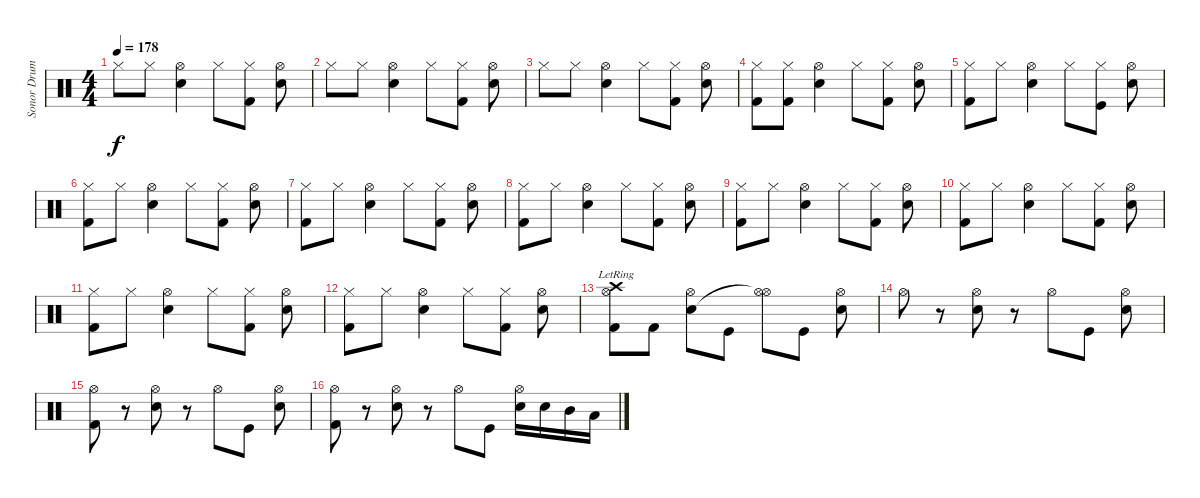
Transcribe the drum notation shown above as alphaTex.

\track ("Sonor Drum Kit " "Sonor Drum") {instrument percussion}
\staff {score}
\articulation defaults
\ts (4 4)
\tempo 178
\clef neutral
\ks c "Hi-Hat (closed)".8{dy f} "Hi-Hat (closed)".8
("Hi-Hat (open)" "Electric Snare (hit)").4 "Hi-Hat (closed)".8 ("Hi-Hat (closed)" "Kick (hit) 2").8 ("Hi-Hat (open)" "Electric Snare (hit)").8 |
"Hi-Hat (closed)".8 "Hi-Hat (closed)".8 ("Hi-Hat (open)" "Electric Snare (hit)").4 "Hi-Hat (closed)".8 ("Hi-Hat (closed)" "Kick (hit) 2").8 ("Hi-Hat (open)" "Electric Snare (hit)").8 |
"Hi-Hat (closed)".8 "Hi-Hat (closed)".8 ("Hi-Hat (open)" "Electric Snare (hit)").4 "Hi-Hat (closed)".8 ("Hi-Hat (closed)" "Kick (hit) 2").8 ("Hi-Hat (open)" "Electric Snare (hit)").8 |
("Hi-Hat (closed)" "Kick (hit) 2").8 ("Hi-Hat (closed)" "Kick (hit) 2").8 ("Hi-Hat (open)" "Electric Snare (hit)").4 "Hi-Hat (closed)".8 ("Hi-Hat (closed)" "Kick (hit) 2").8 ("Hi-Hat (open)" "Electric Snare (hit)").8 |
("Hi-Hat (closed)" "Kick (hit) 2").8 "Hi-Hat (closed)".8 ("Hi-Hat (open)" "Electric Snare (hit)").4 "Hi-Hat (closed)".8 ("Hi-Hat (closed)" "Kick (hit)").8 ("Hi-Hat (open)" "Electric Snare (hit)").8 |
("Hi-Hat (closed)" "Kick (hit) 2").8 "Hi-Hat (closed)".8 ("Hi-Hat (open)" "Electric Snare (hit)").4 "Hi-Hat (closed)".8 ("Hi-Hat (closed)" "Kick (hit) 2").8 ("Hi-Hat (open)" "Electric Snare (hit)").8 |
("Hi-Hat (closed)" "Kick (hit) 2").8 "Hi-Hat (closed)".8 ("Hi-Hat (open)" "Electric Snare (hit)").4 "Hi-Hat (closed)".8 ("Hi-Hat (closed)" "Kick (hit) 2").8 ("Hi-Hat (open)" "Electric Snare (hit)").8 |
("Hi-Hat (closed)" "Kick (hit) 2").8 "Hi-Hat (closed)".8 ("Hi-Hat (open)" "Electric Snare (hit)").4 "Hi-Hat (closed)".8 ("Hi-Hat (closed)" "Kick (hit) 2").8 ("Hi-Hat (open)" "Electric Snare (hit)").8 |
("Hi-Hat (closed)" "Kick (hit) 2").8 "Hi-Hat (closed)".8 ("Hi-Hat (open)" "Electric Snare (hit)").4 "Hi-Hat (closed)".8 ("Hi-Hat (closed)" "Kick (hit) 2").8 ("Hi-Hat (open)" "Electric Snare (hit)").8 |
("Hi-Hat (closed)" "Kick (hit) 2").8 "Hi-Hat (closed)".8 ("Hi-Hat (open)" "Electric Snare (hit)").4 "Hi-Hat (closed)".8 ("Hi-Hat (closed)" "Kick (hit) 2").8 ("Hi-Hat (open)" "Electric Snare (hit)").8 |
("Hi-Hat (closed)" "Kick (hit) 2").8 "Hi-Hat (closed)".8 ("Hi-Hat (open)" "Electric Snare (hit)").4 "Hi-Hat (closed)".8 ("Hi-Hat (closed)" "Kick (hit) 2").8 ("Hi-Hat (open)" "Electric Snare (hit)").8 |
("Hi-Hat (closed)" "Kick (hit) 2").8 "Hi-Hat (closed)".8 ("Hi-Hat (open)" "Electric Snare (hit)").4 "Hi-Hat (closed)".8 ("Hi-Hat (closed)" "Kick (hit) 2").8 ("Hi-Hat (open)" "Electric Snare (hit)").8 |
("Crash high (hit)" "Hi-Hat (open)"{lr} "Kick (hit) 2").8 "Kick (hit) 2".8 ("Hi-Hat (open)" "Electric Snare (hit)").8 "Kick (hit)".8 ("Hi-Hat (open)" "Hi-Hat (open)"{t}).8 "Kick (hit)".8 ("Hi-Hat (open)" "Electric Snare (hit)").8 |
"Hi-Hat (open)".8 r.8 ("Hi-Hat (open)" "Electric Snare (hit)").8 r.8 "Hi-Hat (open)".8 "Kick (hit)".8 ("Hi-Hat (open)" "Electric Snare (hit)").8 |
("Hi-Hat (open)" "Kick (hit) 2").8 r.8 ("Hi-Hat (open)" "Electric Snare (hit)").8 r.8 "Hi-Hat (open)".8 "Kick (hit)".8 ("Hi-Hat (open)" "Electric Snare (hit)").8 |
("Hi-Hat (open)" "Kick (hit) 2").8 r.8 ("Hi-Hat (open)" "Electric Snare (hit)").8 r.8 "Hi-Hat (open)".8 "Kick (hit)".8 ("Hi-Hat (open)" "Electric Snare (hit)").16 "Electric Snare (hit)".16 "Mid Tom (hit)".16 "Low Tom (hit)".16
